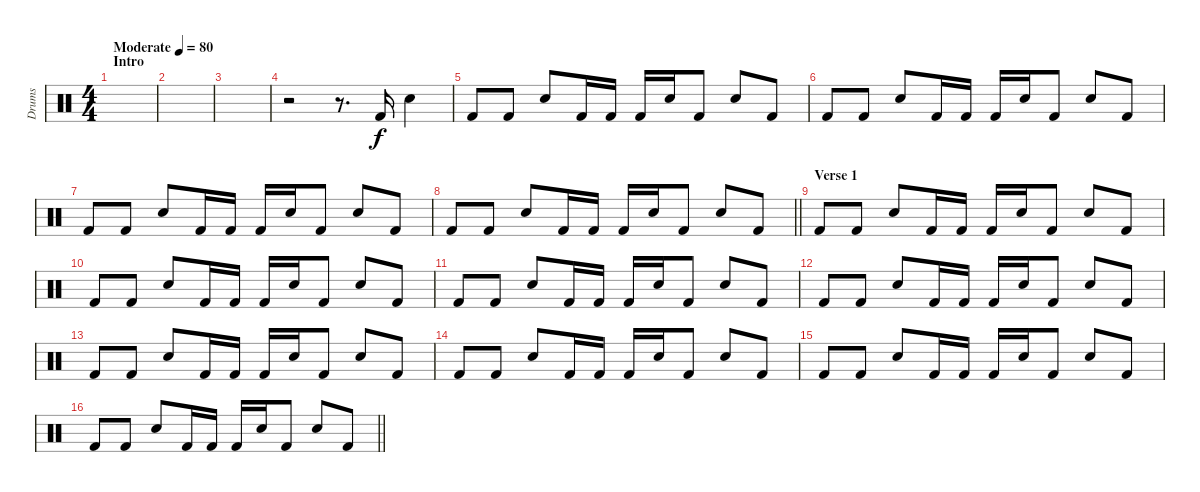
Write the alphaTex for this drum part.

\track ("Drums" "Drums") {instrument percussion}
\staff
\articulation defaults
\ts (4 4)
\section ("" "Intro")
\tempo (80 "Moderate")
\clef neutral
\ks c
|
|
|
r.2 r.8{d} "Kick (hit) 2".16 "Snare (hit) 2".4 |
"Kick (hit) 2".8 "Kick (hit) 2".8 "Snare (hit) 2".8 "Kick (hit) 2".16 "Kick (hit) 2".16 "Kick (hit) 2".16 "Snare (hit) 2".16 "Kick (hit) 2".8 "Snare (hit) 2".8 "Kick (hit) 2".8 |
"Kick (hit) 2".8 "Kick (hit) 2".8 "Snare (hit) 2".8 "Kick (hit) 2".16 "Kick (hit) 2".16 "Kick (hit) 2".16 "Snare (hit) 2".16 "Kick (hit) 2".8 "Snare (hit) 2".8 "Kick (hit) 2".8 |
"Kick (hit) 2".8 "Kick (hit) 2".8 "Snare (hit) 2".8 "Kick (hit) 2".16 "Kick (hit) 2".16 "Kick (hit) 2".16 "Snare (hit) 2".16 "Kick (hit) 2".8 "Snare (hit) 2".8 "Kick (hit) 2".8 |
\barLineRight lightlight "Kick (hit) 2".8 "Kick (hit) 2".8 "Snare (hit) 2".8 "Kick (hit) 2".16 "Kick (hit) 2".16 "Kick (hit) 2".16 "Snare (hit) 2".16 "Kick (hit) 2".8 "Snare (hit) 2".8 "Kick (hit) 2".8
|
\section ("" "Verse 1")
"Kick (hit) 2".8 "Kick (hit) 2".8 "Snare (hit) 2".8 "Kick (hit) 2".16 "Kick (hit) 2".16 "Kick (hit) 2".16 "Snare (hit) 2".16 "Kick (hit) 2".8 "Snare (hit) 2".8 "Kick (hit) 2".8 |
"Kick (hit) 2".8 "Kick (hit) 2".8 "Snare (hit) 2".8 "Kick (hit) 2".16 "Kick (hit) 2".16 "Kick (hit) 2".16 "Snare (hit) 2".16 "Kick (hit) 2".8 "Snare (hit) 2".8 "Kick (hit) 2".8 |
"Kick (hit) 2".8 "Kick (hit) 2".8 "Snare (hit) 2".8 "Kick (hit) 2".16 "Kick (hit) 2".16 "Kick (hit) 2".16 "Snare (hit) 2".16 "Kick (hit) 2".8 "Snare (hit) 2".8 "Kick (hit) 2".8 |
"Kick (hit) 2".8 "Kick (hit) 2".8 "Snare (hit) 2".8 "Kick (hit) 2".16 "Kick (hit) 2".16 "Kick (hit) 2".16 "Snare (hit) 2".16 "Kick (hit) 2".8 "Snare (hit) 2".8 "Kick (hit) 2".8 |
"Kick (hit) 2".8 "Kick (hit) 2".8 "Snare (hit) 2".8 "Kick (hit) 2".16 "Kick (hit) 2".16 "Kick (hit) 2".16 "Snare (hit) 2".16 "Kick (hit) 2".8 "Snare (hit) 2".8 "Kick (hit) 2".8 |
"Kick (hit) 2".8 "Kick (hit) 2".8 "Snare (hit) 2".8 "Kick (hit) 2".16 "Kick (hit) 2".16 "Kick (hit) 2".16 "Snare (hit) 2".16 "Kick (hit) 2".8 "Snare (hit) 2".8 "Kick (hit) 2".8 |
"Kick (hit) 2".8 "Kick (hit) 2".8 "Snare (hit) 2".8 "Kick (hit) 2".16 "Kick (hit) 2".16 "Kick (hit) 2".16 "Snare (hit) 2".16 "Kick (hit) 2".8 "Snare (hit) 2".8 "Kick (hit) 2".8 |
\barLineRight lightlight "Kick (hit) 2".8 "Kick (hit) 2".8 "Snare (hit) 2".8 "Kick (hit) 2".16 "Kick (hit) 2".16 "Kick (hit) 2".16 "Snare (hit) 2".16 "Kick (hit) 2".8 "Snare (hit) 2".8 "Kick (hit) 2".8
